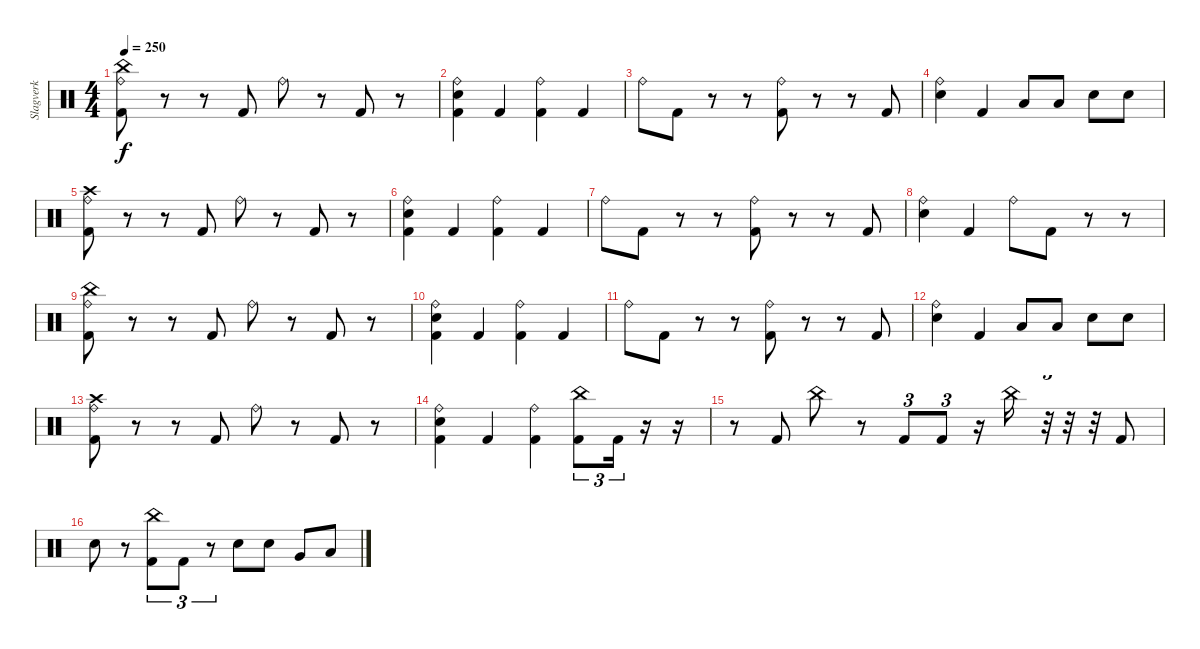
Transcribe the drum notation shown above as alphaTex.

\track ("Slagverk" "Slagverk") {instrument percussion}
\staff {score}
\articulation defaults
\ts (4 4)
\tempo 250
\clef neutral
\ks c
("China (hit)" "Ride (bell)" "Kick (hit) 2").8{dy f} r.8 r.8 "Kick (hit) 2".8 "Ride (bell)".8 r.8 "Kick (hit) 2".8 r.8 |
("Ride (bell)" "Electric Snare (hit)" "Kick (hit) 2").4 "Kick (hit) 2".4 ("Ride (bell)" "Kick (hit) 2").4 "Kick (hit) 2".4 |
"Ride (bell)".8 "Kick (hit) 2".8 r.8 r.8 ("Ride (bell)" "Kick (hit) 2").8 r.8 r.8 "Kick (hit) 2".8 |
("Ride (bell)" "Electric Snare (hit)").4 "Kick (hit) 2".4 "Low Floor Tom (hit)".8 "Low Floor Tom (hit)".8 "Electric Snare (hit)".8 "Electric Snare (hit)".8 |
("Crash high (hit)" "Ride (bell)" "Kick (hit) 2").8 r.8 r.8 "Kick (hit) 2".8 "Ride (bell)".8 r.8 "Kick (hit) 2".8 r.8 |
("Ride (bell)" "Electric Snare (hit)" "Kick (hit) 2").4 "Kick (hit) 2".4 ("Ride (bell)" "Kick (hit) 2").4 "Kick (hit) 2".4 |
"Ride (bell)".8 "Kick (hit) 2".8 r.8 r.8 ("Ride (bell)" "Kick (hit) 2").8 r.8 r.8 "Kick (hit) 2".8 |
("Ride (bell)" "Electric Snare (hit)").4 "Kick (hit) 2".4 "Ride (bell)".8 "Kick (hit) 2".8 r.8 r.8 |
("China (hit)" "Ride (bell)" "Kick (hit) 2").8 r.8 r.8 "Kick (hit) 2".8 "Ride (bell)".8 r.8 "Kick (hit) 2".8 r.8 |
("Ride (bell)" "Electric Snare (hit)" "Kick (hit) 2").4 "Kick (hit) 2".4 ("Ride (bell)" "Kick (hit) 2").4 "Kick (hit) 2".4 |
"Ride (bell)".8 "Kick (hit) 2".8 r.8 r.8 ("Ride (bell)" "Kick (hit) 2").8 r.8 r.8 "Kick (hit) 2".8 |
("Ride (bell)" "Electric Snare (hit)").4 "Kick (hit) 2".4 "Low Floor Tom (hit)".8 "Low Floor Tom (hit)".8 "Electric Snare (hit)".8 "Electric Snare (hit)".8 |
("Crash high (hit)" "Ride (bell)" "Kick (hit) 2").8 r.8 r.8 "Kick (hit) 2".8 "Ride (bell)".8 r.8 "Kick (hit) 2".8 r.8 |
("Ride (bell)" "Electric Snare (hit)" "Kick (hit) 2").4 "Kick (hit) 2".4 ("Ride (bell)" "Kick (hit) 2").4 ("China (hit)" "Kick (hit) 2").8{tu (3 2)} "Kick (hit) 2".16{tu (3 2)} r.16 r.16 |
r.8 "Kick (hit) 2".8 "China (hit)".8 r.8 "Kick (hit) 2".8{tu (3 2)} "Kick (hit) 2".8{tu (3 2)} r.16 "China (hit)".16 r.32{tu (3 2)} r.32 r.32 "Kick (hit) 2".8 |
"Electric Snare (hit)".8 r.8 ("China (hit)" "Kick (hit) 2").8{tu (3 2)} "Kick (hit) 2".8{tu (3 2)} r.8{tu (3 2)} "Electric Snare (hit)".8 "Electric Snare (hit)".8 "Very Low Tom (hit)".8 "Low Floor Tom (hit)".8
